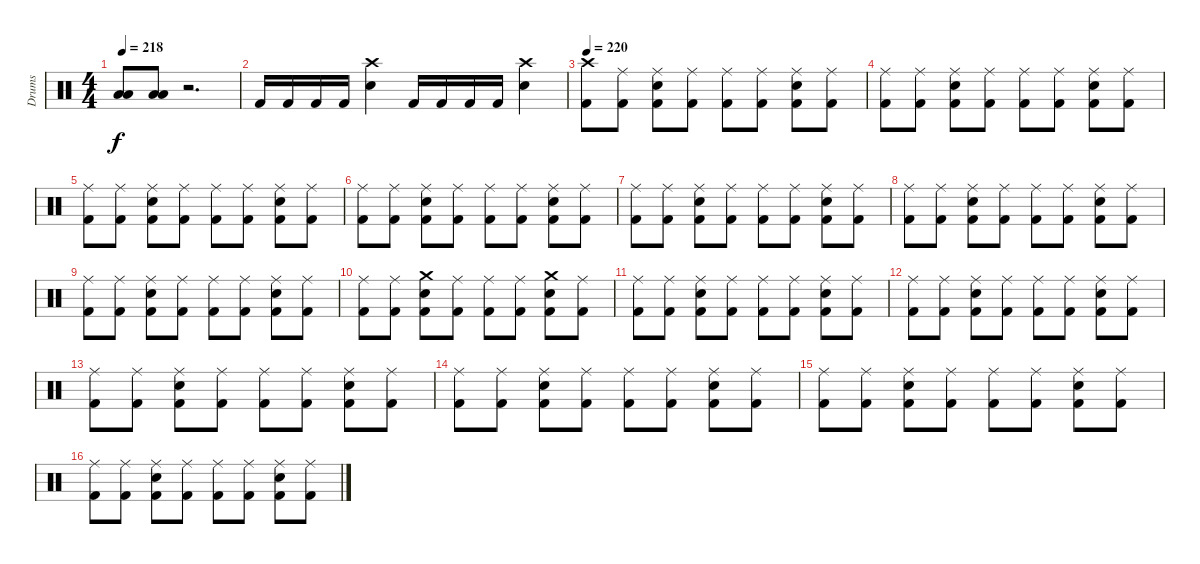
\track ("Drums" "Drums") {instrument percussion}
\staff {score}
\articulation defaults
\ts (4 4)
\tempo 218
\clef neutral
\ks c
("Low Tom (hit)" "Low Tom (hit)").8{dy f} ("Low Tom (hit)" "Low Tom (hit)").8 r.2{d} |
"Kick (hit) 2".16 "Kick (hit) 2".16 "Kick (hit) 2".16 "Kick (hit) 2".16 ("Snare (hit) 2" "Crash high (hit)").4 "Kick (hit) 2".16 "Kick (hit) 2".16 "Kick (hit) 2".16 "Kick (hit) 2".16 ("Snare (hit) 2" "Crash high (hit)").4 |
\tempo 220
("Kick (hit) 2" "Crash high (hit)").8 ("Kick (hit) 2" "Ride (middle)").8 ("Kick (hit) 2" "Snare (hit) 2" "Ride (middle)").8 ("Kick (hit) 2" "Ride (middle)").8 ("Kick (hit) 2" "Ride (middle)").8 ("Kick (hit) 2" "Ride (middle)").8 ("Kick (hit) 2" "Snare (hit) 2" "Ride (middle)").8 ("Kick (hit) 2" "Ride (middle)").8 |
("Kick (hit) 2" "Ride (middle)").8 ("Kick (hit) 2" "Ride (middle)").8 ("Kick (hit) 2" "Snare (hit) 2" "Ride (middle)").8 ("Kick (hit) 2" "Ride (middle)").8 ("Kick (hit) 2" "Ride (middle)").8 ("Kick (hit) 2" "Ride (middle)").8 ("Kick (hit) 2" "Snare (hit) 2" "Ride (middle)").8 ("Kick (hit) 2" "Ride (middle)").8 |
("Kick (hit) 2" "Ride (middle)").8 ("Kick (hit) 2" "Ride (middle)").8 ("Kick (hit) 2" "Snare (hit) 2" "Ride (middle)").8 ("Kick (hit) 2" "Ride (middle)").8 ("Kick (hit) 2" "Ride (middle)").8 ("Kick (hit) 2" "Ride (middle)").8 ("Kick (hit) 2" "Snare (hit) 2" "Ride (middle)").8 ("Kick (hit) 2" "Ride (middle)").8 |
("Kick (hit) 2" "Ride (middle)").8 ("Kick (hit) 2" "Ride (middle)").8 ("Kick (hit) 2" "Snare (hit) 2" "Ride (middle)").8 ("Kick (hit) 2" "Ride (middle)").8 ("Kick (hit) 2" "Ride (middle)").8 ("Kick (hit) 2" "Ride (middle)").8 ("Kick (hit) 2" "Snare (hit) 2" "Ride (middle)").8 ("Kick (hit) 2" "Ride (middle)").8 |
("Kick (hit) 2" "Ride (middle)").8 ("Kick (hit) 2" "Ride (middle)").8 ("Kick (hit) 2" "Snare (hit) 2" "Ride (middle)").8 ("Kick (hit) 2" "Ride (middle)").8 ("Kick (hit) 2" "Ride (middle)").8 ("Kick (hit) 2" "Ride (middle)").8 ("Kick (hit) 2" "Snare (hit) 2" "Ride (middle)").8 ("Kick (hit) 2" "Ride (middle)").8 |
("Kick (hit) 2" "Ride (middle)").8 ("Kick (hit) 2" "Ride (middle)").8 ("Kick (hit) 2" "Snare (hit) 2" "Ride (middle)").8 ("Kick (hit) 2" "Ride (middle)").8 ("Kick (hit) 2" "Ride (middle)").8 ("Kick (hit) 2" "Ride (middle)").8 ("Kick (hit) 2" "Snare (hit) 2" "Ride (middle)").8 ("Kick (hit) 2" "Ride (middle)").8 |
("Kick (hit) 2" "Ride (middle)").8 ("Kick (hit) 2" "Ride (middle)").8 ("Kick (hit) 2" "Snare (hit) 2" "Ride (middle)").8 ("Kick (hit) 2" "Ride (middle)").8 ("Kick (hit) 2" "Ride (middle)").8 ("Kick (hit) 2" "Ride (middle)").8 ("Kick (hit) 2" "Snare (hit) 2" "Ride (middle)").8 ("Kick (hit) 2" "Ride (middle)").8 |
("Kick (hit) 2" "Ride (middle)").8 ("Kick (hit) 2" "Ride (middle)").8 ("Kick (hit) 2" "Snare (hit) 2" "Crash medium (hit)").8 ("Kick (hit) 2" "Ride (middle)").8 ("Kick (hit) 2" "Ride (middle)").8 ("Kick (hit) 2" "Ride (middle)").8 ("Kick (hit) 2" "Snare (hit) 2" "Crash medium (hit)").8 ("Kick (hit) 2" "Ride (middle)").8 |
("Kick (hit) 2" "Ride (middle)").8 ("Kick (hit) 2" "Ride (middle)").8 ("Kick (hit) 2" "Snare (hit) 2" "Ride (middle)").8 ("Kick (hit) 2" "Ride (middle)").8 ("Kick (hit) 2" "Ride (middle)").8 ("Kick (hit) 2" "Ride (middle)").8 ("Kick (hit) 2" "Snare (hit) 2" "Ride (middle)").8 ("Kick (hit) 2" "Ride (middle)").8 |
("Kick (hit) 2" "Ride (middle)").8 ("Kick (hit) 2" "Ride (middle)").8 ("Kick (hit) 2" "Snare (hit) 2" "Ride (middle)").8 ("Kick (hit) 2" "Ride (middle)").8 ("Kick (hit) 2" "Ride (middle)").8 ("Kick (hit) 2" "Ride (middle)").8 ("Kick (hit) 2" "Snare (hit) 2" "Ride (middle)").8 ("Kick (hit) 2" "Ride (middle)").8 |
("Kick (hit) 2" "Ride (middle)").8 ("Kick (hit) 2" "Ride (middle)").8 ("Kick (hit) 2" "Snare (hit) 2" "Ride (middle)").8 ("Kick (hit) 2" "Ride (middle)").8 ("Kick (hit) 2" "Ride (middle)").8 ("Kick (hit) 2" "Ride (middle)").8 ("Kick (hit) 2" "Snare (hit) 2" "Ride (middle)").8 ("Kick (hit) 2" "Ride (middle)").8 |
("Kick (hit) 2" "Ride (middle)").8 ("Kick (hit) 2" "Ride (middle)").8 ("Kick (hit) 2" "Snare (hit) 2" "Ride (middle)").8 ("Kick (hit) 2" "Ride (middle)").8 ("Kick (hit) 2" "Ride (middle)").8 ("Kick (hit) 2" "Ride (middle)").8 ("Kick (hit) 2" "Snare (hit) 2" "Ride (middle)").8 ("Kick (hit) 2" "Ride (middle)").8 |
("Kick (hit) 2" "Ride (middle)").8 ("Kick (hit) 2" "Ride (middle)").8 ("Kick (hit) 2" "Snare (hit) 2" "Ride (middle)").8 ("Kick (hit) 2" "Ride (middle)").8 ("Kick (hit) 2" "Ride (middle)").8 ("Kick (hit) 2" "Ride (middle)").8 ("Kick (hit) 2" "Snare (hit) 2" "Ride (middle)").8 ("Kick (hit) 2" "Ride (middle)").8 |
("Kick (hit) 2" "Ride (middle)").8 ("Kick (hit) 2" "Ride (middle)").8 ("Kick (hit) 2" "Snare (hit) 2" "Ride (middle)").8 ("Kick (hit) 2" "Ride (middle)").8 ("Kick (hit) 2" "Ride (middle)").8 ("Kick (hit) 2" "Ride (middle)").8 ("Kick (hit) 2" "Snare (hit) 2" "Ride (middle)").8 ("Kick (hit) 2" "Ride (middle)").8
